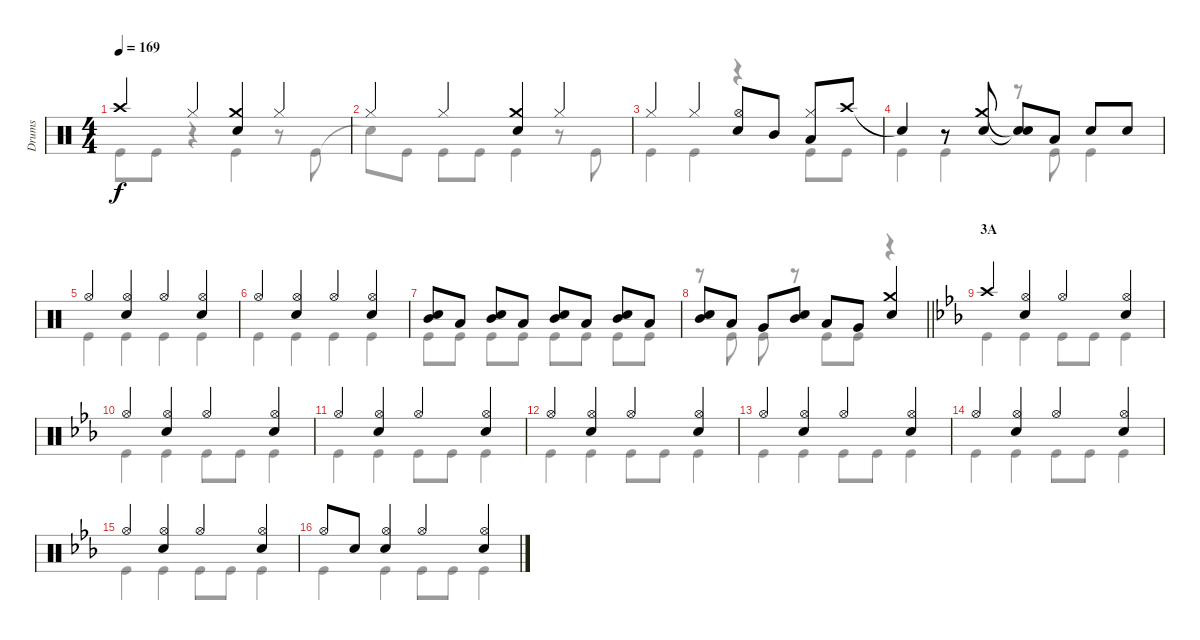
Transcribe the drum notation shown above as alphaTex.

\track ("Drums" "Drums") {instrument percussion}
\staff {score}
\articulation defaults
\voice
\ts (4 4)
\tempo 169
\clef neutral
\ks c "Crash high (hit)".4{dy f} "Hi-Hat (closed)".4
("Crash medium (hit)" "Snare (hit) 2").4 "Hi-Hat (closed)".4 |
"Hi-Hat (closed)".4 "Hi-Hat (closed)".4 ("Crash medium (hit)" "Snare (hit) 2").4 "Hi-Hat (closed)".4 |
"Hi-Hat (closed)".4 "Hi-Hat (closed)".4 ("Hi-Hat (open)" "Snare (hit) 2").8 "Mid Tom (hit)".8 ("Hi-Hat (closed)" "Low Tom (hit)").8 "Crash high (hit)".8 |
"Snare (hit)"{t}.4 r.8 ("Crash medium (hit)" "Snare (hit) 2").8 ("Snare (hit)"{t} "Snare (hit)"{t}).8 "Low Tom (hit)".8 "Snare (hit) 2".8 "Snare (hit) 2".8 |
"Hi-Hat (open)".4 ("Hi-Hat (open)" "Snare (hit) 2").4 "Hi-Hat (open)".4 ("Hi-Hat (open)" "Snare (hit) 2").4 |
"Hi-Hat (open)".4 ("Hi-Hat (open)" "Snare (hit) 2").4 "Hi-Hat (open)".4 ("Hi-Hat (open)" "Snare (hit) 2").4 |
("Mid Tom (hit)" "Snare (hit) 2").8 "Low Tom (hit)".8 ("Mid Tom (hit)" "Snare (hit) 2").8 "Low Tom (hit)".8 ("Mid Tom (hit)" "Snare (hit) 2").8 "Low Tom (hit)".8 ("Mid Tom (hit)" "Snare (hit) 2").8 "Low Tom (hit)".8 |
\barLineRight lightlight
("Mid Tom (hit)" "Snare (hit) 2").8 "Low Tom (hit)".8 "Very Low Tom (hit)".8 ("Mid Tom (hit)" "Snare (hit) 2").8 "Low Tom (hit)".8 "Very Low Tom (hit)".8 ("Crash medium (hit)" "Snare (hit) 2").4 |
\section ("" "3A")
\ks eb "Crash high (hit)".4
("Hi-Hat (open)" "Snare (hit) 2").4 "Hi-Hat (open)".4 ("Hi-Hat (open)" "Snare (hit) 2").4 |
"Hi-Hat (open)".4 ("Hi-Hat (open)" "Snare (hit) 2").4 "Hi-Hat (open)".4 ("Hi-Hat (open)" "Snare (hit) 2").4 |
"Hi-Hat (open)".4 ("Hi-Hat (open)" "Snare (hit) 2").4 "Hi-Hat (open)".4 ("Hi-Hat (open)" "Snare (hit) 2").4 |
"Hi-Hat (open)".4 ("Hi-Hat (open)" "Snare (hit) 2").4 "Hi-Hat (open)".4 ("Hi-Hat (open)" "Snare (hit) 2").4 |
"Hi-Hat (open)".4 ("Hi-Hat (open)" "Snare (hit) 2").4 "Hi-Hat (open)".4 ("Hi-Hat (open)" "Snare (hit) 2").4 |
"Hi-Hat (open)".4 ("Hi-Hat (open)" "Snare (hit) 2").4 "Hi-Hat (open)".4 ("Hi-Hat (open)" "Snare (hit) 2").4 |
"Hi-Hat (open)".4 ("Hi-Hat (open)" "Snare (hit) 2").4 "Hi-Hat (open)".4 ("Hi-Hat (open)" "Snare (hit) 2").4 |
"Hi-Hat (open)".8 "Snare (hit) 2".8 ("Hi-Hat (open)" "Snare (hit) 2").4 "Hi-Hat (open)".4 ("Hi-Hat (open)" "Snare (hit) 2").4
\voice
\clef neutral
\ottava regular
\simile none
\ks c "Kick (hit)".8{dy f} "Kick (hit)".8
r.4 "Kick (hit)".4 r.8 "Kick (hit)".8 |
"Snare (hit)"{t}.8 "Kick (hit)".8 "Kick (hit)".8 "Kick (hit)".8 "Kick (hit)".4 r.8 "Kick (hit)".8 |
"Kick (hit)".4 "Kick (hit)".4 r.4 "Kick (hit)".8 "Kick (hit)".8 |
"Kick (hit)".4 "Kick (hit)".4 r.8 "Kick (hit)".8 "Kick (hit)".4 |
"Kick (hit)".4 "Kick (hit)".4 "Kick (hit)".4 "Kick (hit)".4 |
"Kick (hit)".4 "Kick (hit)".4 "Kick (hit)".4 "Kick (hit)".4 |
"Kick (hit)".8 "Kick (hit)".8 "Kick (hit)".8 "Kick (hit)".8 "Kick (hit)".8 "Kick (hit)".8 "Kick (hit)".8 "Kick (hit)".8 |
\barLineRight lightlight
r.8 "Kick (hit)".8 "Kick (hit)".8 r.8 "Kick (hit)".8 "Kick (hit)".8 r.4 |
\ks eb "Kick (hit)".4 "Kick (hit)".4 "Kick (hit)".8 "Kick (hit)".8 "Kick (hit)".4
|
"Kick (hit)".4 "Kick (hit)".4 "Kick (hit)".8 "Kick (hit)".8 "Kick (hit)".4 |
"Kick (hit)".4 "Kick (hit)".4 "Kick (hit)".8 "Kick (hit)".8 "Kick (hit)".4 |
"Kick (hit)".4 "Kick (hit)".4 "Kick (hit)".8 "Kick (hit)".8 "Kick (hit)".4 |
"Kick (hit)".4 "Kick (hit)".4 "Kick (hit)".8 "Kick (hit)".8 "Kick (hit)".4 |
"Kick (hit)".4 "Kick (hit)".4 "Kick (hit)".8 "Kick (hit)".8 "Kick (hit)".4 |
"Kick (hit)".4 "Kick (hit)".4 "Kick (hit)".8 "Kick (hit)".8 "Kick (hit)".4 |
"Kick (hit)".4 "Kick (hit)".4 "Kick (hit)".8 "Kick (hit)".8 "Kick (hit)".4
